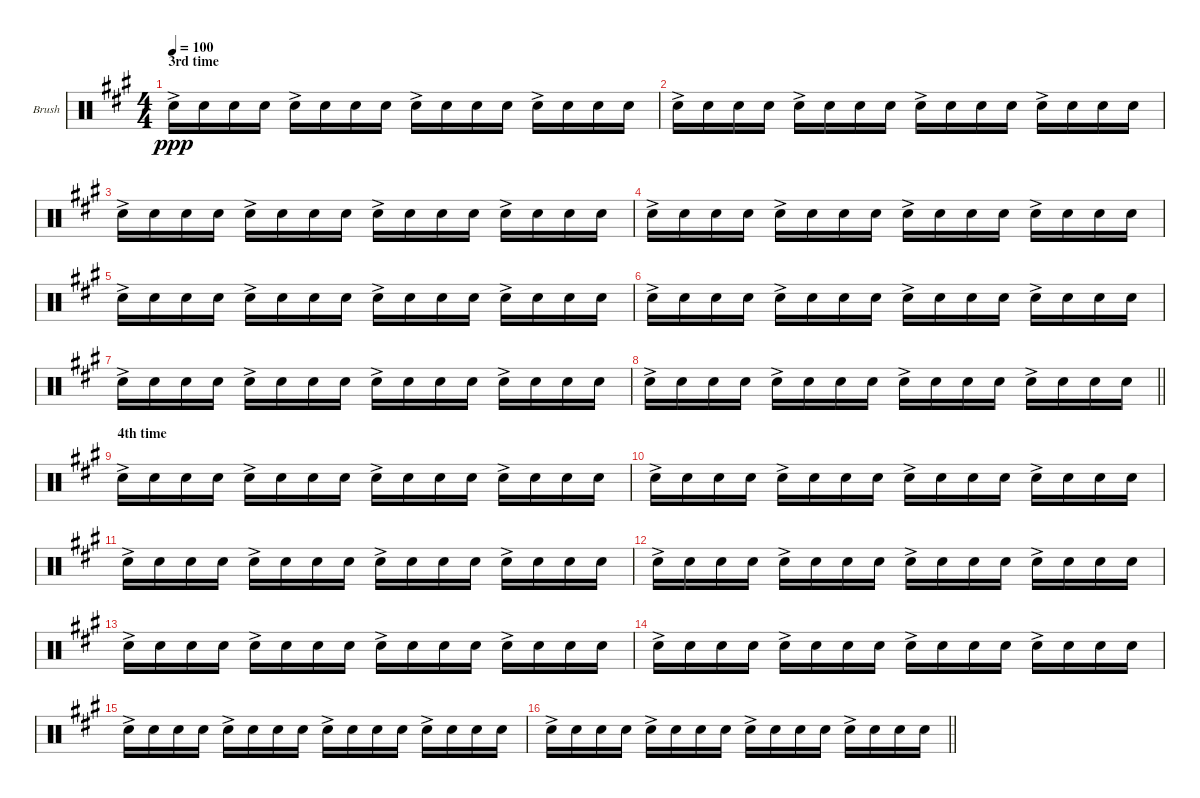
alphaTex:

\bracketExtendMode groupsimilarinstruments
\firstSystemTrackNameOrientation horizontal
\otherSystemsTrackNameOrientation horizontal
\track ("Brush Snare" "Brush") {instrument percussion}
\staff {score}
\articulation defaults
\ts (4 4)
\section ("" "3rd time")
\tempo 100
\clef neutral
\ks f#minor "Snare (hit) 2"{ac}.16{dy ppp} "Snare (hit) 2".16 "Snare (hit) 2".16 "Snare (hit) 2".16 "Snare (hit) 2"{ac}.16 "Snare (hit) 2".16 "Snare (hit) 2".16 "Snare (hit) 2".16 "Snare (hit) 2"{ac}.16 "Snare (hit) 2".16 "Snare (hit) 2".16 "Snare (hit) 2".16 "Snare (hit) 2"{ac}.16 "Snare (hit) 2".16 "Snare (hit) 2".16 "Snare (hit) 2".16
|
"Snare (hit) 2"{ac}.16 "Snare (hit) 2".16 "Snare (hit) 2".16 "Snare (hit) 2".16 "Snare (hit) 2"{ac}.16 "Snare (hit) 2".16 "Snare (hit) 2".16 "Snare (hit) 2".16 "Snare (hit) 2"{ac}.16 "Snare (hit) 2".16 "Snare (hit) 2".16 "Snare (hit) 2".16 "Snare (hit) 2"{ac}.16 "Snare (hit) 2".16 "Snare (hit) 2".16 "Snare (hit) 2".16 |
"Snare (hit) 2"{ac}.16 "Snare (hit) 2".16 "Snare (hit) 2".16 "Snare (hit) 2".16 "Snare (hit) 2"{ac}.16 "Snare (hit) 2".16 "Snare (hit) 2".16 "Snare (hit) 2".16 "Snare (hit) 2"{ac}.16 "Snare (hit) 2".16 "Snare (hit) 2".16 "Snare (hit) 2".16 "Snare (hit) 2"{ac}.16 "Snare (hit) 2".16 "Snare (hit) 2".16 "Snare (hit) 2".16 |
"Snare (hit) 2"{ac}.16 "Snare (hit) 2".16 "Snare (hit) 2".16 "Snare (hit) 2".16 "Snare (hit) 2"{ac}.16 "Snare (hit) 2".16 "Snare (hit) 2".16 "Snare (hit) 2".16 "Snare (hit) 2"{ac}.16 "Snare (hit) 2".16 "Snare (hit) 2".16 "Snare (hit) 2".16 "Snare (hit) 2"{ac}.16 "Snare (hit) 2".16 "Snare (hit) 2".16 "Snare (hit) 2".16 |
"Snare (hit) 2"{ac}.16 "Snare (hit) 2".16 "Snare (hit) 2".16 "Snare (hit) 2".16 "Snare (hit) 2"{ac}.16 "Snare (hit) 2".16 "Snare (hit) 2".16 "Snare (hit) 2".16 "Snare (hit) 2"{ac}.16 "Snare (hit) 2".16 "Snare (hit) 2".16 "Snare (hit) 2".16 "Snare (hit) 2"{ac}.16 "Snare (hit) 2".16 "Snare (hit) 2".16 "Snare (hit) 2".16 |
"Snare (hit) 2"{ac}.16 "Snare (hit) 2".16 "Snare (hit) 2".16 "Snare (hit) 2".16 "Snare (hit) 2"{ac}.16 "Snare (hit) 2".16 "Snare (hit) 2".16 "Snare (hit) 2".16 "Snare (hit) 2"{ac}.16 "Snare (hit) 2".16 "Snare (hit) 2".16 "Snare (hit) 2".16 "Snare (hit) 2"{ac}.16 "Snare (hit) 2".16 "Snare (hit) 2".16 "Snare (hit) 2".16 |
"Snare (hit) 2"{ac}.16 "Snare (hit) 2".16 "Snare (hit) 2".16 "Snare (hit) 2".16 "Snare (hit) 2"{ac}.16 "Snare (hit) 2".16 "Snare (hit) 2".16 "Snare (hit) 2".16 "Snare (hit) 2"{ac}.16 "Snare (hit) 2".16 "Snare (hit) 2".16 "Snare (hit) 2".16 "Snare (hit) 2"{ac}.16 "Snare (hit) 2".16 "Snare (hit) 2".16 "Snare (hit) 2".16 |
\barLineRight lightlight "Snare (hit) 2"{ac}.16 "Snare (hit) 2".16 "Snare (hit) 2".16 "Snare (hit) 2".16 "Snare (hit) 2"{ac}.16 "Snare (hit) 2".16 "Snare (hit) 2".16 "Snare (hit) 2".16 "Snare (hit) 2"{ac}.16 "Snare (hit) 2".16 "Snare (hit) 2".16 "Snare (hit) 2".16 "Snare (hit) 2"{ac}.16 "Snare (hit) 2".16 "Snare (hit) 2".16 "Snare (hit) 2".16
|
\section ("" "4th time")
"Snare (hit) 2"{ac}.16 "Snare (hit) 2".16 "Snare (hit) 2".16 "Snare (hit) 2".16 "Snare (hit) 2"{ac}.16 "Snare (hit) 2".16 "Snare (hit) 2".16 "Snare (hit) 2".16 "Snare (hit) 2"{ac}.16 "Snare (hit) 2".16 "Snare (hit) 2".16 "Snare (hit) 2".16 "Snare (hit) 2"{ac}.16 "Snare (hit) 2".16 "Snare (hit) 2".16 "Snare (hit) 2".16 |
"Snare (hit) 2"{ac}.16 "Snare (hit) 2".16 "Snare (hit) 2".16 "Snare (hit) 2".16 "Snare (hit) 2"{ac}.16 "Snare (hit) 2".16 "Snare (hit) 2".16 "Snare (hit) 2".16 "Snare (hit) 2"{ac}.16 "Snare (hit) 2".16 "Snare (hit) 2".16 "Snare (hit) 2".16 "Snare (hit) 2"{ac}.16 "Snare (hit) 2".16 "Snare (hit) 2".16 "Snare (hit) 2".16 |
"Snare (hit) 2"{ac}.16 "Snare (hit) 2".16 "Snare (hit) 2".16 "Snare (hit) 2".16 "Snare (hit) 2"{ac}.16 "Snare (hit) 2".16 "Snare (hit) 2".16 "Snare (hit) 2".16 "Snare (hit) 2"{ac}.16 "Snare (hit) 2".16 "Snare (hit) 2".16 "Snare (hit) 2".16 "Snare (hit) 2"{ac}.16 "Snare (hit) 2".16 "Snare (hit) 2".16 "Snare (hit) 2".16 |
"Snare (hit) 2"{ac}.16 "Snare (hit) 2".16 "Snare (hit) 2".16 "Snare (hit) 2".16 "Snare (hit) 2"{ac}.16 "Snare (hit) 2".16 "Snare (hit) 2".16 "Snare (hit) 2".16 "Snare (hit) 2"{ac}.16 "Snare (hit) 2".16 "Snare (hit) 2".16 "Snare (hit) 2".16 "Snare (hit) 2"{ac}.16 "Snare (hit) 2".16 "Snare (hit) 2".16 "Snare (hit) 2".16 |
"Snare (hit) 2"{ac}.16 "Snare (hit) 2".16 "Snare (hit) 2".16 "Snare (hit) 2".16 "Snare (hit) 2"{ac}.16 "Snare (hit) 2".16 "Snare (hit) 2".16 "Snare (hit) 2".16 "Snare (hit) 2"{ac}.16 "Snare (hit) 2".16 "Snare (hit) 2".16 "Snare (hit) 2".16 "Snare (hit) 2"{ac}.16 "Snare (hit) 2".16 "Snare (hit) 2".16 "Snare (hit) 2".16 |
"Snare (hit) 2"{ac}.16 "Snare (hit) 2".16 "Snare (hit) 2".16 "Snare (hit) 2".16 "Snare (hit) 2"{ac}.16 "Snare (hit) 2".16 "Snare (hit) 2".16 "Snare (hit) 2".16 "Snare (hit) 2"{ac}.16 "Snare (hit) 2".16 "Snare (hit) 2".16 "Snare (hit) 2".16 "Snare (hit) 2"{ac}.16 "Snare (hit) 2".16 "Snare (hit) 2".16 "Snare (hit) 2".16 |
"Snare (hit) 2"{ac}.16 "Snare (hit) 2".16 "Snare (hit) 2".16 "Snare (hit) 2".16 "Snare (hit) 2"{ac}.16 "Snare (hit) 2".16 "Snare (hit) 2".16 "Snare (hit) 2".16 "Snare (hit) 2"{ac}.16 "Snare (hit) 2".16 "Snare (hit) 2".16 "Snare (hit) 2".16 "Snare (hit) 2"{ac}.16 "Snare (hit) 2".16 "Snare (hit) 2".16 "Snare (hit) 2".16 |
\barLineRight lightlight "Snare (hit) 2"{ac}.16 "Snare (hit) 2".16 "Snare (hit) 2".16 "Snare (hit) 2".16 "Snare (hit) 2"{ac}.16 "Snare (hit) 2".16 "Snare (hit) 2".16 "Snare (hit) 2".16 "Snare (hit) 2"{ac}.16 "Snare (hit) 2".16 "Snare (hit) 2".16 "Snare (hit) 2".16 "Snare (hit) 2"{ac}.16 "Snare (hit) 2".16 "Snare (hit) 2".16 "Snare (hit) 2".16
